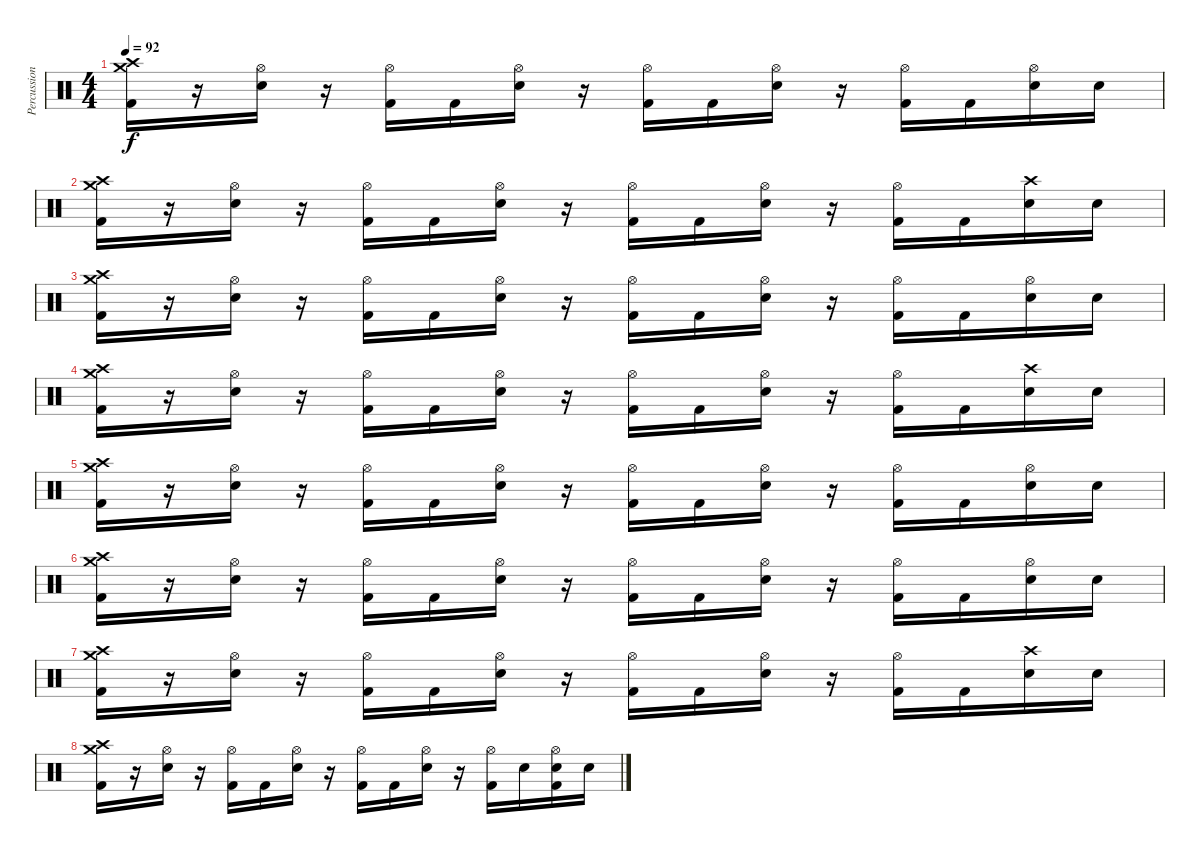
\track ("Percussion" "Percussion") {instrument percussion}
\staff {score}
\articulation defaults
\ts (4 4)
\tempo 92
\clef neutral
\ks c
("Kick (hit) 2" "Crash high (hit)" "Crash medium (hit)").16{dy f} r.16 ("Electric Snare (hit)" "Hi-Hat (open)").16 r.16 ("Kick (hit) 2" "Hi-Hat (open)").16 "Kick (hit) 2".16 ("Electric Snare (hit)" "Hi-Hat (open)").16 r.16 ("Kick (hit) 2" "Hi-Hat (open)").16 "Kick (hit) 2".16 ("Electric Snare (hit)" "Hi-Hat (open)").16 r.16 ("Kick (hit) 2" "Hi-Hat (open)").16 "Kick (hit) 2".16 ("Electric Snare (hit)" "Hi-Hat (open)").16 "Snare (hit)"{x}.16 |
("Kick (hit) 2" "Crash high (hit)" "Crash medium (hit)").16 r.16 ("Electric Snare (hit)" "Hi-Hat (open)").16 r.16 ("Kick (hit) 2" "Hi-Hat (open)").16 "Kick (hit) 2".16 ("Electric Snare (hit)" "Hi-Hat (open)").16 r.16 ("Kick (hit) 2" "Hi-Hat (open)").16 "Kick (hit) 2".16 ("Electric Snare (hit)" "Hi-Hat (open)").16 r.16 ("Kick (hit) 2" "Hi-Hat (open)").16 "Kick (hit) 2".16 ("Electric Snare (hit)" "Crash high (hit)").16 "Snare (hit)"{x}.16 |
("Kick (hit) 2" "Crash high (hit)" "Crash medium (hit)").16 r.16 ("Electric Snare (hit)" "Hi-Hat (open)").16 r.16 ("Kick (hit) 2" "Hi-Hat (open)").16 "Kick (hit) 2".16 ("Electric Snare (hit)" "Hi-Hat (open)").16 r.16 ("Kick (hit) 2" "Hi-Hat (open)").16 "Kick (hit) 2".16 ("Electric Snare (hit)" "Hi-Hat (open)").16 r.16 ("Kick (hit) 2" "Hi-Hat (open)").16 "Kick (hit) 2".16 ("Electric Snare (hit)" "Hi-Hat (open)").16 "Snare (hit)"{x}.16 |
("Kick (hit) 2" "Crash high (hit)" "Crash medium (hit)").16 r.16 ("Electric Snare (hit)" "Hi-Hat (open)").16 r.16 ("Kick (hit) 2" "Hi-Hat (open)").16 "Kick (hit) 2".16 ("Electric Snare (hit)" "Hi-Hat (open)").16 r.16 ("Kick (hit) 2" "Hi-Hat (open)").16 "Kick (hit) 2".16 ("Electric Snare (hit)" "Hi-Hat (open)").16 r.16 ("Kick (hit) 2" "Hi-Hat (open)").16 "Kick (hit) 2".16 ("Electric Snare (hit)" "Crash high (hit)").16 "Snare (hit)"{x}.16 |
("Kick (hit) 2" "Crash high (hit)" "Crash medium (hit)").16 r.16 ("Electric Snare (hit)" "Hi-Hat (open)").16 r.16 ("Kick (hit) 2" "Hi-Hat (open)").16 "Kick (hit) 2".16 ("Electric Snare (hit)" "Hi-Hat (open)").16 r.16 ("Kick (hit) 2" "Hi-Hat (open)").16 "Kick (hit) 2".16 ("Electric Snare (hit)" "Hi-Hat (open)").16 r.16 ("Kick (hit) 2" "Hi-Hat (open)").16 "Kick (hit) 2".16 ("Electric Snare (hit)" "Hi-Hat (open)").16 "Snare (hit)"{x}.16 |
("Kick (hit) 2" "Crash high (hit)" "Crash medium (hit)").16 r.16 ("Electric Snare (hit)" "Hi-Hat (open)").16 r.16 ("Kick (hit) 2" "Hi-Hat (open)").16 "Kick (hit) 2".16 ("Electric Snare (hit)" "Hi-Hat (open)").16 r.16 ("Kick (hit) 2" "Hi-Hat (open)").16 "Kick (hit) 2".16 ("Electric Snare (hit)" "Hi-Hat (open)").16 r.16 ("Kick (hit) 2" "Hi-Hat (open)").16 "Kick (hit) 2".16 ("Electric Snare (hit)" "Hi-Hat (open)").16 "Snare (hit)"{x}.16 |
("Kick (hit) 2" "Crash high (hit)" "Crash medium (hit)").16 r.16 ("Electric Snare (hit)" "Hi-Hat (open)").16 r.16 ("Kick (hit) 2" "Hi-Hat (open)").16 "Kick (hit) 2".16 ("Electric Snare (hit)" "Hi-Hat (open)").16 r.16 ("Kick (hit) 2" "Hi-Hat (open)").16 "Kick (hit) 2".16 ("Electric Snare (hit)" "Hi-Hat (open)").16 r.16 ("Kick (hit) 2" "Hi-Hat (open)").16 "Kick (hit) 2".16 ("Electric Snare (hit)" "Crash high (hit)").16 "Snare (hit)"{x}.16 |
("Kick (hit) 2" "Crash high (hit)" "Crash medium (hit)").16 r.16 ("Electric Snare (hit)" "Hi-Hat (open)").16 r.16 ("Kick (hit) 2" "Hi-Hat (open)").16 "Kick (hit) 2".16 ("Electric Snare (hit)" "Hi-Hat (open)").16 r.16 ("Kick (hit) 2" "Hi-Hat (open)").16 "Kick (hit) 2".16 ("Electric Snare (hit)" "Hi-Hat (open)").16 r.16 ("Kick (hit) 2" "Hi-Hat (open)").16 "Electric Snare (hit)".16 ("Electric Snare (hit)" "Hi-Hat (open)" "Kick (hit) 2").16 "Electric Snare (hit)".16
